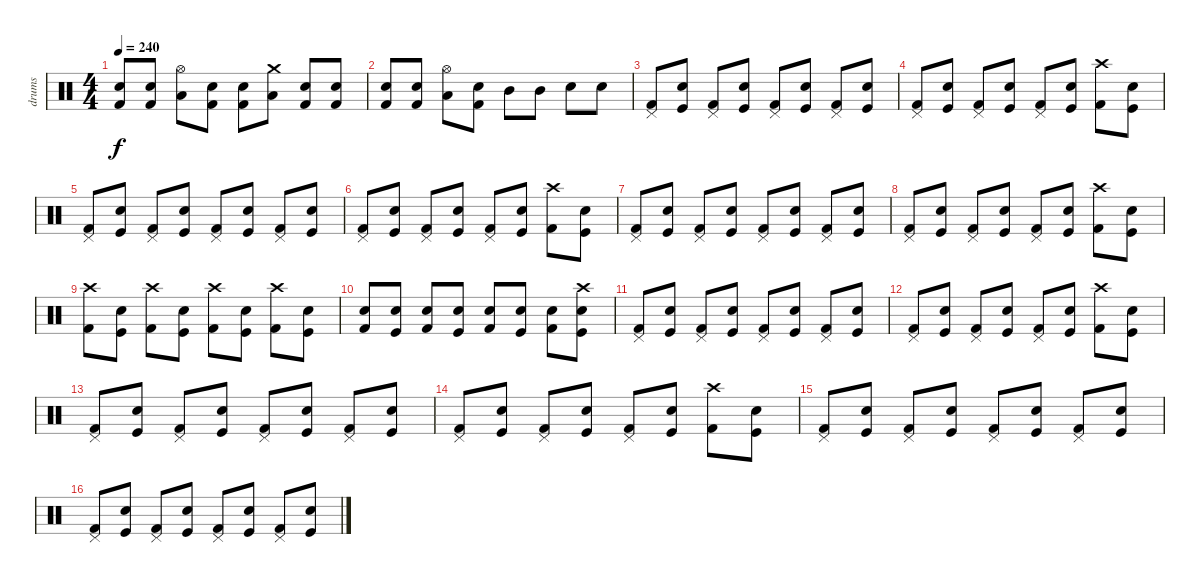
\track ("drums" "drums") {instrument percussion}
\staff {score}
\articulation defaults
\ts (4 4)
\tempo 240
\clef neutral
\ks c
("Electric Snare (hit)" "Kick (hit) 2").8{dy f} ("Electric Snare (hit)" "Kick (hit) 2").8 ("Low Tom (hit)" "Hi-Hat (open)").8 ("Snare (hit) 2" "Kick (hit) 2").8 ("Snare (hit) 2" "Kick (hit) 2").8 ("Low Tom (hit)" "Crash medium (hit)").8 ("Snare (hit) 2" "Kick (hit) 2").8 ("Snare (hit) 2" "Kick (hit) 2").8 |
("Electric Snare (hit)" "Kick (hit) 2").8 ("Electric Snare (hit)" "Kick (hit) 2").8 ("Low Tom (hit)" "Hi-Hat (open)").8 ("Snare (hit) 2" "Kick (hit) 2").8 "Mid Tom (hit)".8 "Mid Tom (hit)".8 "Snare (hit) 2".8 "Snare (hit) 2".8 |
("Pedal Hi-Hat (hit)" "Kick (hit) 2").8 ("Electric Snare (hit)" "Kick (hit)").8 ("Pedal Hi-Hat (hit)" "Kick (hit) 2").8 ("Electric Snare (hit)" "Kick (hit)").8 ("Pedal Hi-Hat (hit)" "Kick (hit) 2").8 ("Electric Snare (hit)" "Kick (hit)").8 ("Pedal Hi-Hat (hit)" "Kick (hit) 2").8 ("Electric Snare (hit)" "Kick (hit)").8 |
("Pedal Hi-Hat (hit)" "Kick (hit) 2").8 ("Electric Snare (hit)" "Kick (hit)").8 ("Pedal Hi-Hat (hit)" "Kick (hit) 2").8 ("Electric Snare (hit)" "Kick (hit)").8 ("Pedal Hi-Hat (hit)" "Kick (hit) 2").8 ("Electric Snare (hit)" "Kick (hit)").8 ("Crash high (hit)" "Kick (hit) 2").8 ("Electric Snare (hit)" "Kick (hit)").8 |
("Pedal Hi-Hat (hit)" "Kick (hit) 2").8 ("Electric Snare (hit)" "Kick (hit)").8 ("Pedal Hi-Hat (hit)" "Kick (hit) 2").8 ("Electric Snare (hit)" "Kick (hit)").8 ("Pedal Hi-Hat (hit)" "Kick (hit) 2").8 ("Electric Snare (hit)" "Kick (hit)").8 ("Pedal Hi-Hat (hit)" "Kick (hit) 2").8 ("Electric Snare (hit)" "Kick (hit)").8 |
("Pedal Hi-Hat (hit)" "Kick (hit) 2").8 ("Electric Snare (hit)" "Kick (hit)").8 ("Pedal Hi-Hat (hit)" "Kick (hit) 2").8 ("Electric Snare (hit)" "Kick (hit)").8 ("Pedal Hi-Hat (hit)" "Kick (hit) 2").8 ("Electric Snare (hit)" "Kick (hit)").8 ("Crash high (hit)" "Kick (hit) 2").8 ("Electric Snare (hit)" "Kick (hit)").8 |
("Pedal Hi-Hat (hit)" "Kick (hit) 2").8 ("Electric Snare (hit)" "Kick (hit)").8 ("Pedal Hi-Hat (hit)" "Kick (hit) 2").8 ("Electric Snare (hit)" "Kick (hit)").8 ("Pedal Hi-Hat (hit)" "Kick (hit) 2").8 ("Electric Snare (hit)" "Kick (hit)").8 ("Pedal Hi-Hat (hit)" "Kick (hit) 2").8 ("Electric Snare (hit)" "Kick (hit)").8 |
("Pedal Hi-Hat (hit)" "Kick (hit) 2").8 ("Electric Snare (hit)" "Kick (hit)").8 ("Pedal Hi-Hat (hit)" "Kick (hit) 2").8 ("Electric Snare (hit)" "Kick (hit)").8 ("Pedal Hi-Hat (hit)" "Kick (hit) 2").8 ("Electric Snare (hit)" "Kick (hit)").8 ("Crash high (hit)" "Kick (hit) 2").8 ("Electric Snare (hit)" "Kick (hit)").8 |
("Crash high (hit)" "Kick (hit) 2").8 ("Electric Snare (hit)" "Kick (hit)").8 ("Crash high (hit)" "Kick (hit) 2").8 ("Electric Snare (hit)" "Kick (hit)").8 ("Crash high (hit)" "Kick (hit) 2").8 ("Electric Snare (hit)" "Kick (hit)").8 ("Crash high (hit)" "Kick (hit) 2").8 ("Electric Snare (hit)" "Kick (hit)").8 |
("Snare (hit) 2" "Kick (hit) 2").8 ("Electric Snare (hit)" "Kick (hit)").8 ("Snare (hit) 2" "Kick (hit) 2").8 ("Electric Snare (hit)" "Kick (hit)").8 ("Snare (hit) 2" "Kick (hit) 2").8 ("Electric Snare (hit)" "Kick (hit)").8 ("Snare (hit) 2" "Kick (hit) 2").8 ("Crash high (hit)" "Electric Snare (hit)" "Kick (hit)").8 |
("Pedal Hi-Hat (hit)" "Kick (hit) 2").8 ("Electric Snare (hit)" "Kick (hit)").8 ("Pedal Hi-Hat (hit)" "Kick (hit) 2").8 ("Electric Snare (hit)" "Kick (hit)").8 ("Pedal Hi-Hat (hit)" "Kick (hit) 2").8 ("Electric Snare (hit)" "Kick (hit)").8 ("Pedal Hi-Hat (hit)" "Kick (hit) 2").8 ("Electric Snare (hit)" "Kick (hit)").8 |
("Pedal Hi-Hat (hit)" "Kick (hit) 2").8 ("Electric Snare (hit)" "Kick (hit)").8 ("Pedal Hi-Hat (hit)" "Kick (hit) 2").8 ("Electric Snare (hit)" "Kick (hit)").8 ("Pedal Hi-Hat (hit)" "Kick (hit) 2").8 ("Electric Snare (hit)" "Kick (hit)").8 ("Crash high (hit)" "Kick (hit) 2").8 ("Electric Snare (hit)" "Kick (hit)").8 |
("Pedal Hi-Hat (hit)" "Kick (hit) 2").8 ("Electric Snare (hit)" "Kick (hit)").8 ("Pedal Hi-Hat (hit)" "Kick (hit) 2").8 ("Electric Snare (hit)" "Kick (hit)").8 ("Pedal Hi-Hat (hit)" "Kick (hit) 2").8 ("Electric Snare (hit)" "Kick (hit)").8 ("Pedal Hi-Hat (hit)" "Kick (hit) 2").8 ("Electric Snare (hit)" "Kick (hit)").8 |
("Pedal Hi-Hat (hit)" "Kick (hit) 2").8 ("Electric Snare (hit)" "Kick (hit)").8 ("Pedal Hi-Hat (hit)" "Kick (hit) 2").8 ("Electric Snare (hit)" "Kick (hit)").8 ("Pedal Hi-Hat (hit)" "Kick (hit) 2").8 ("Electric Snare (hit)" "Kick (hit)").8 ("Crash high (hit)" "Kick (hit) 2").8 ("Electric Snare (hit)" "Kick (hit)").8 |
("Pedal Hi-Hat (hit)" "Kick (hit) 2").8 ("Electric Snare (hit)" "Kick (hit)").8 ("Pedal Hi-Hat (hit)" "Kick (hit) 2").8 ("Electric Snare (hit)" "Kick (hit)").8 ("Pedal Hi-Hat (hit)" "Kick (hit) 2").8 ("Electric Snare (hit)" "Kick (hit)").8 ("Pedal Hi-Hat (hit)" "Kick (hit) 2").8 ("Electric Snare (hit)" "Kick (hit)").8 |
("Pedal Hi-Hat (hit)" "Kick (hit) 2").8 ("Electric Snare (hit)" "Kick (hit)").8 ("Pedal Hi-Hat (hit)" "Kick (hit) 2").8 ("Electric Snare (hit)" "Kick (hit)").8 ("Pedal Hi-Hat (hit)" "Kick (hit) 2").8 ("Electric Snare (hit)" "Kick (hit)").8 ("Pedal Hi-Hat (hit)" "Kick (hit) 2").8 ("Electric Snare (hit)" "Kick (hit)").8
